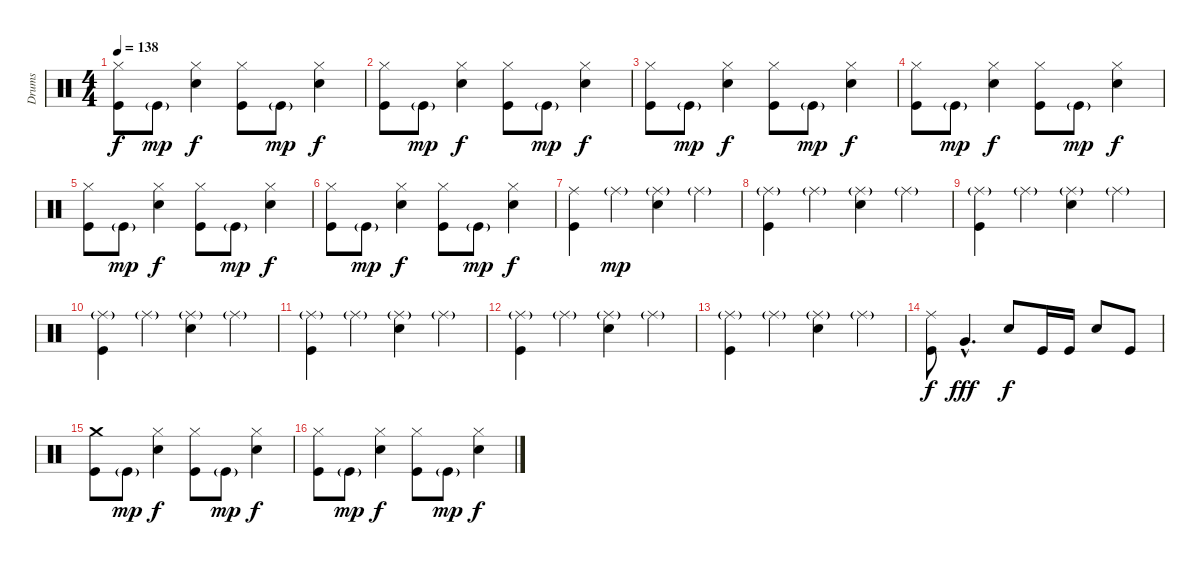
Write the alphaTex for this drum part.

\track ("Drums" "Drums") {instrument percussion}
\staff {score}
\articulation defaults
\ts (4 4)
\tempo 138
\clef neutral
\ks c
("Hi-Hat (closed)" "Kick (hit)").8{dy f} "Kick (hit)"{g}.8{dy mp} ("Hi-Hat (closed)" "Electric Snare (hit)").4{dy f} ("Hi-Hat (closed)" "Kick (hit)").8 "Kick (hit)"{g}.8{dy mp} ("Hi-Hat (closed)" "Electric Snare (hit)").4{dy f} |
("Hi-Hat (closed)" "Kick (hit)").8 "Kick (hit)"{g}.8{dy mp} ("Hi-Hat (closed)" "Electric Snare (hit)").4{dy f} ("Hi-Hat (closed)" "Kick (hit)").8 "Kick (hit)"{g}.8{dy mp} ("Hi-Hat (closed)" "Electric Snare (hit)").4{dy f} |
("Hi-Hat (closed)" "Kick (hit)").8 "Kick (hit)"{g}.8{dy mp} ("Hi-Hat (closed)" "Electric Snare (hit)").4{dy f} ("Hi-Hat (closed)" "Kick (hit)").8 "Kick (hit)"{g}.8{dy mp} ("Hi-Hat (closed)" "Electric Snare (hit)").4{dy f} |
("Hi-Hat (closed)" "Kick (hit)").8 "Kick (hit)"{g}.8{dy mp} ("Hi-Hat (closed)" "Electric Snare (hit)").4{dy f} ("Hi-Hat (closed)" "Kick (hit)").8 "Kick (hit)"{g}.8{dy mp} ("Hi-Hat (closed)" "Electric Snare (hit)").4{dy f} |
("Hi-Hat (closed)" "Kick (hit)").8 "Kick (hit)"{g}.8{dy mp} ("Hi-Hat (closed)" "Electric Snare (hit)").4{dy f} ("Hi-Hat (closed)" "Kick (hit)").8 "Kick (hit)"{g}.8{dy mp} ("Hi-Hat (closed)" "Electric Snare (hit)").4{dy f} |
("Hi-Hat (closed)" "Kick (hit)").8 "Kick (hit)"{g}.8{dy mp} ("Hi-Hat (closed)" "Electric Snare (hit)").4{dy f} ("Hi-Hat (closed)" "Kick (hit)").8 "Kick (hit)"{g}.8{dy mp} ("Hi-Hat (closed)" "Electric Snare (hit)").4{dy f} |
("Ride (middle)" "Kick (hit)").4 "Ride (middle)"{g}.4{dy mp} ("Ride (middle)"{g} "Electric Snare (hit)").4 "Ride (middle)"{g}.4 |
("Ride (middle)"{g} "Kick (hit)").4 "Ride (middle)"{g}.4 ("Ride (middle)"{g} "Electric Snare (hit)").4 "Ride (middle)"{g}.4 |
("Ride (middle)"{g} "Kick (hit)").4 "Ride (middle)"{g}.4 ("Ride (middle)"{g} "Electric Snare (hit)").4 "Ride (middle)"{g}.4 |
("Ride (middle)"{g} "Kick (hit)").4 "Ride (middle)"{g}.4 ("Ride (middle)"{g} "Electric Snare (hit)").4 "Ride (middle)"{g}.4 |
("Ride (middle)"{g} "Kick (hit)").4 "Ride (middle)"{g}.4 ("Ride (middle)"{g} "Electric Snare (hit)").4 "Ride (middle)"{g}.4 |
("Ride (middle)"{g} "Kick (hit)").4 "Ride (middle)"{g}.4 ("Ride (middle)"{g} "Electric Snare (hit)").4 "Ride (middle)"{g}.4 |
("Ride (middle)"{g} "Kick (hit)").4 "Ride (middle)"{g}.4 ("Ride (middle)"{g} "Electric Snare (hit)").4 "Ride (middle)"{g}.4 |
("Ride (middle)" "Kick (hit)").8{dy f} "Very Low Tom (hit)"{hac}.4{d dy fff} "Electric Snare (hit)".8{dy f} "Kick (hit)".16 "Kick (hit)".16 "Electric Snare (hit)".8 "Kick (hit)".8 |
("Crash medium (hit)" "Kick (hit)").8 "Kick (hit)"{g}.8{dy mp} ("Hi-Hat (closed)" "Electric Snare (hit)").4{dy f} ("Hi-Hat (closed)" "Kick (hit)").8 "Kick (hit)"{g}.8{dy mp} ("Hi-Hat (closed)" "Electric Snare (hit)").4{dy f} |
("Hi-Hat (closed)" "Kick (hit)").8 "Kick (hit)"{g}.8{dy mp} ("Hi-Hat (closed)" "Electric Snare (hit)").4{dy f} ("Hi-Hat (closed)" "Kick (hit)").8 "Kick (hit)"{g}.8{dy mp} ("Hi-Hat (closed)" "Electric Snare (hit)").4{dy f}
